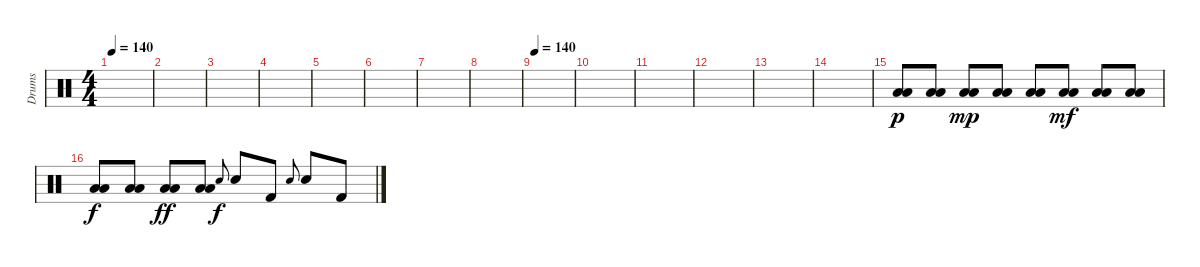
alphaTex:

\track ("Drums" "Drums") {instrument percussion}
\staff {score}
\articulation defaults
\ts (4 4)
\tempo 140
\clef neutral
\ks c
|
|
|
|
|
|
|
|
\tempo 140
|
|
|
|
|
|
("Low Floor Tom (hit)" "Low Tom (hit)").8{dy p} ("Low Floor Tom (hit)" "Low Tom (hit)").8 ("Low Floor Tom (hit)" "Low Tom (hit)").8{dy mp} ("Low Floor Tom (hit)" "Low Tom (hit)").8 ("Low Floor Tom (hit)" "Low Tom (hit)").8 ("Low Floor Tom (hit)" "Low Tom (hit)").8{dy mf} ("Low Floor Tom (hit)" "Low Tom (hit)").8 ("Low Floor Tom (hit)" "Low Tom (hit)").8 |
("Low Floor Tom (hit)" "Low Tom (hit)").8{dy f} ("Low Floor Tom (hit)" "Low Tom (hit)").8 ("Low Floor Tom (hit)" "Low Tom (hit)").8{dy ff} ("Low Floor Tom (hit)" "Low Tom (hit)").8 "Electric Snare (hit)".8{gr onbeat dy f} "Electric Snare (hit)".8 "Kick (hit) 2".8 "Electric Snare (hit)".8{gr onbeat} "Electric Snare (hit)".8 "Kick (hit) 2".8
